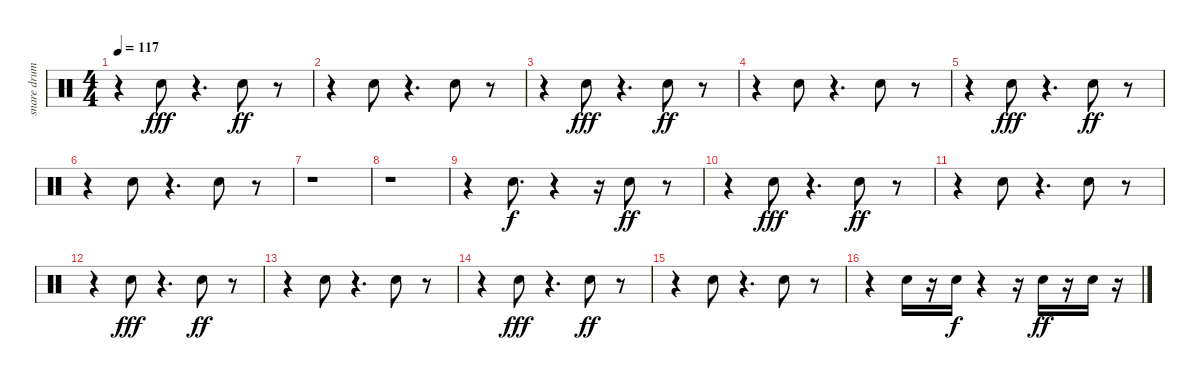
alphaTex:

\track ("snare drum" "snare drum") {instrument percussion}
\staff {score}
\articulation defaults
\ts (4 4)
\tempo 117
\clef neutral
\ks c
r.4{dy ff} "Snare (hit) 2".8{dy fff} r.4{d} "Snare (hit) 2".8{dy ff} r.8 |
r.4 "Snare (hit) 2".8 r.4{d} "Snare (hit) 2".8 r.8 |
r.4 "Snare (hit) 2".8{dy fff} r.4{d} "Snare (hit) 2".8{dy ff} r.8 |
r.4 "Snare (hit) 2".8 r.4{d} "Snare (hit) 2".8 r.8 |
r.4 "Snare (hit) 2".8{dy fff} r.4{d} "Snare (hit) 2".8{dy ff} r.8 |
r.4 "Snare (hit) 2".8 r.4{d} "Snare (hit) 2".8 r.8 |
r.1 |
r.1 |
r.4 "Snare (hit) 2".8{d dy f} r.4 r.16 "Snare (hit) 2".8{dy ff} r.8 |
r.4 "Snare (hit) 2".8{dy fff} r.4{d} "Snare (hit) 2".8{dy ff} r.8 |
r.4 "Snare (hit) 2".8 r.4{d} "Snare (hit) 2".8 r.8 |
r.4 "Snare (hit) 2".8{dy fff} r.4{d} "Snare (hit) 2".8{dy ff} r.8 |
r.4 "Snare (hit) 2".8 r.4{d} "Snare (hit) 2".8 r.8 |
r.4 "Snare (hit) 2".8{dy fff} r.4{d} "Snare (hit) 2".8{dy ff} r.8 |
r.4 "Snare (hit) 2".8 r.4{d} "Snare (hit) 2".8 r.8 |
r.4 "Snare (hit) 2".16 r.16 "Snare (hit) 2".16{dy f} r.4 r.16 "Snare (hit) 2".16{dy ff} r.16 "Snare (hit) 2".16 r.16
